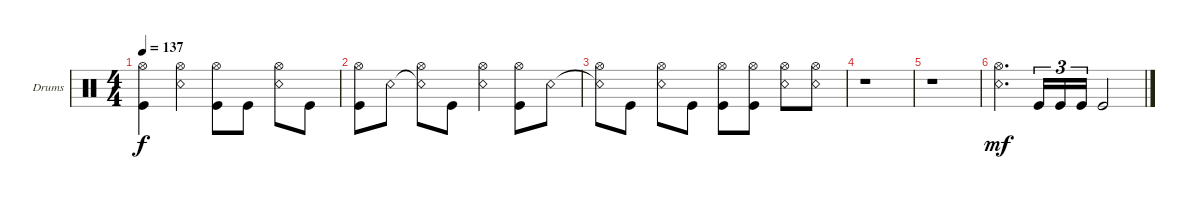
\defaultSystemsLayout 4
\bracketExtendMode groupsimilarinstruments
\firstSystemTrackNameOrientation horizontal
\otherSystemsTrackNameOrientation horizontal
\track ("Drums" "Drums") {instrument percussion}
\staff {score}
\articulation defaults
\ts (4 4)
\tempo 137
\clef neutral
\scale
0.333333
\ks c
("Kick (hit)" "Hi-Hat (open)").4{dy f} ("Snare (rim shot)" "Hi-Hat (open)").4 ("Kick (hit)" "Hi-Hat (open)").8 "Kick (hit)".8 ("Snare (rim shot)" "Hi-Hat (open)").8 "Kick (hit)".8 |
\scale
0.333333 ("Kick (hit)" "Hi-Hat (open)").8 "Snare (rim shot)".8 ("Snare (rim shot)"{t} "Hi-Hat (open)").8 "Kick (hit)".8 ("Snare (rim shot)" "Hi-Hat (open)").4 ("Kick (hit)" "Hi-Hat (open)").8 "Snare (rim shot)".8 |
\scale
0.333333 ("Snare (rim shot)"{t} "Hi-Hat (open)").8 "Kick (hit)".8 ("Snare (rim shot)" "Hi-Hat (open)").8 "Kick (hit)".8 ("Kick (hit)" "Hi-Hat (open)").8 ("Hi-Hat (open)" "Kick (hit)").8 ("Snare (rim shot)" "Hi-Hat (open)").8 ("Snare (rim shot)" "Hi-Hat (open)").8 |
\scale
0.333333 r.1 |
\scale
0.333333 r.1 |
("Snare (rim shot)" "Hi-Hat (open)").4{d dy mf} "Kick (hit)".16{tu (3 2)} "Kick (hit)".16{tu (3 2)} "Kick (hit)".16{tu (3 2)} "Kick (hit)".2
